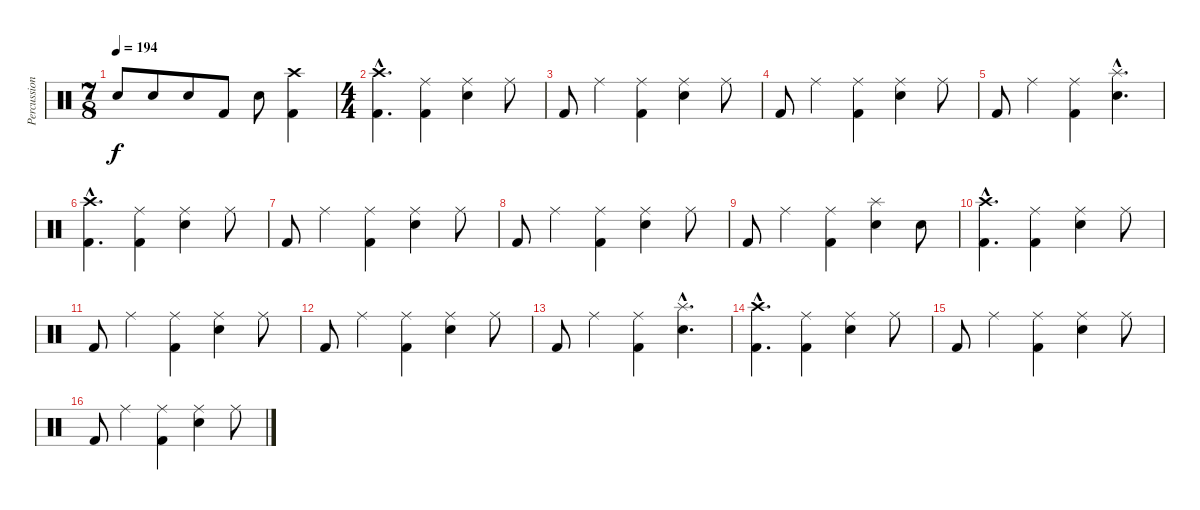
\track ("Percussions" "Percussion") {instrument percussion}
\staff {score}
\articulation defaults
\ts (7 8)
\tempo 194
\clef neutral
\ks c "Electric Snare (hit)".8{dy f} "Electric Snare (hit)".8 "Electric Snare (hit)".8 "Kick (hit) 2".8 "Electric Snare (hit)".8
("Crash high (hit)" "Kick (hit) 2").4 |
\ts (4 4)
("Crash high (hit)"{hac} "Kick (hit) 2"{hac}).4{d} ("Ride (middle)" "Kick (hit) 2").4 ("Ride (middle)" "Electric Snare (hit)").4 "Ride (middle)".8 |
"Kick (hit) 2".8 "Ride (middle)".4 ("Ride (middle)" "Kick (hit) 2").4 ("Ride (middle)" "Electric Snare (hit)").4 "Ride (middle)".8 |
"Kick (hit) 2".8 "Ride (middle)".4 ("Ride (middle)" "Kick (hit) 2").4 ("Ride (middle)" "Electric Snare (hit)").4 "Ride (middle)".8 |
"Kick (hit) 2".8 "Ride (middle)".4 ("Ride (middle)" "Kick (hit) 2").4 ("Splash (hit)"{hac} "Electric Snare (hit)"{hac}).4{d} |
("Crash high (hit)"{hac} "Kick (hit) 2"{hac}).4{d} ("Ride (middle)" "Kick (hit) 2").4 ("Ride (middle)" "Electric Snare (hit)").4 "Ride (middle)".8 |
"Kick (hit) 2".8 "Ride (middle)".4 ("Ride (middle)" "Kick (hit) 2").4 ("Ride (middle)" "Electric Snare (hit)").4 "Ride (middle)".8 |
"Kick (hit) 2".8 "Ride (middle)".4 ("Ride (middle)" "Kick (hit) 2").4 ("Ride (middle)" "Electric Snare (hit)").4 "Ride (middle)".8 |
"Kick (hit) 2".8 "Ride (middle)".4 ("Ride (middle)" "Kick (hit) 2").4 ("Splash (hit)" "Electric Snare (hit)").4 "Electric Snare (hit)".8 |
("Crash high (hit)"{hac} "Kick (hit) 2"{hac}).4{d} ("Ride (middle)" "Kick (hit) 2").4 ("Ride (middle)" "Electric Snare (hit)").4 "Ride (middle)".8 |
"Kick (hit) 2".8 "Ride (middle)".4 ("Ride (middle)" "Kick (hit) 2").4 ("Ride (middle)" "Electric Snare (hit)").4 "Ride (middle)".8 |
"Kick (hit) 2".8 "Ride (middle)".4 ("Ride (middle)" "Kick (hit) 2").4 ("Ride (middle)" "Electric Snare (hit)").4 "Ride (middle)".8 |
"Kick (hit) 2".8 "Ride (middle)".4 ("Ride (middle)" "Kick (hit) 2").4 ("Splash (hit)"{hac} "Electric Snare (hit)"{hac}).4{d} |
("Crash high (hit)"{hac} "Kick (hit) 2"{hac}).4{d} ("Ride (middle)" "Kick (hit) 2").4 ("Ride (middle)" "Electric Snare (hit)").4 "Ride (middle)".8 |
"Kick (hit) 2".8 "Ride (middle)".4 ("Ride (middle)" "Kick (hit) 2").4 ("Ride (middle)" "Electric Snare (hit)").4 "Ride (middle)".8 |
"Kick (hit) 2".8 "Ride (middle)".4 ("Ride (middle)" "Kick (hit) 2").4 ("Ride (middle)" "Electric Snare (hit)").4 "Ride (middle)".8
